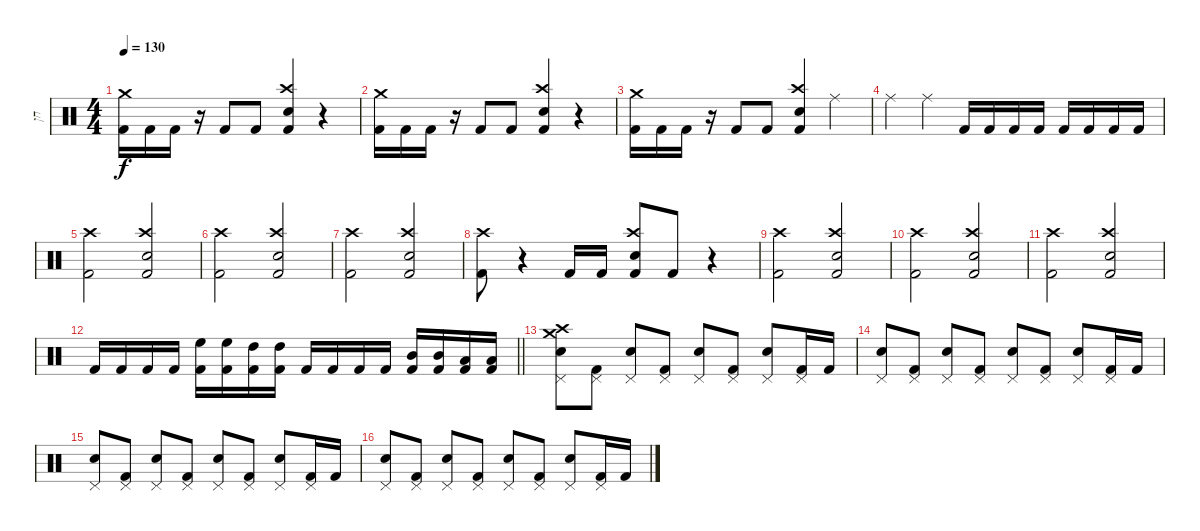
\track ("חן" "חן") {instrument percussion}
\staff {score}
\articulation defaults
\ts (4 4)
\tempo 130
\clef neutral
\ks c
("Crash medium (hit)" "Kick (hit) 2").16{dy f} "Kick (hit) 2".16 "Kick (hit) 2".16 r.16 "Kick (hit) 2".8 "Kick (hit) 2".8 ("Crash high (hit)" "Electric Snare (hit)" "Kick (hit) 2").4 r.4 |
("Crash medium (hit)" "Kick (hit) 2").16 "Kick (hit) 2".16 "Kick (hit) 2".16 r.16 "Kick (hit) 2".8 "Kick (hit) 2".8 ("Crash high (hit)" "Electric Snare (hit)" "Kick (hit) 2").4 r.4 |
("Crash medium (hit)" "Kick (hit) 2").16 "Kick (hit) 2".16 "Kick (hit) 2".16 r.16 "Kick (hit) 2".8 "Kick (hit) 2".8 ("Crash high (hit)" "Electric Snare (hit)" "Kick (hit) 2").4 "Ride (middle)".4 |
"Ride (middle)".4 "Ride (middle)".4 "Kick (hit) 2".16 "Kick (hit) 2".16 "Kick (hit) 2".16 "Kick (hit) 2".16 "Kick (hit) 2".16 "Kick (hit) 2".16 "Kick (hit) 2".16 "Kick (hit) 2".16 |
("Crash high (hit)" "Kick (hit) 2").2 ("Crash high (hit)" "Electric Snare (hit)" "Kick (hit) 2").2 |
("Crash high (hit)" "Kick (hit) 2").2 ("Crash high (hit)" "Electric Snare (hit)" "Kick (hit) 2").2 |
("Crash high (hit)" "Kick (hit) 2").2 ("Crash high (hit)" "Electric Snare (hit)" "Kick (hit) 2").2 |
("Crash high (hit)" "Kick (hit) 2").8 r.4 "Kick (hit) 2".16 "Kick (hit) 2".16 ("Crash high (hit)" "Electric Snare (hit)" "Kick (hit) 2").8 "Kick (hit) 2".8 r.4 |
("Crash high (hit)" "Kick (hit) 2").2 ("Crash high (hit)" "Electric Snare (hit)" "Kick (hit) 2").2 |
("Crash high (hit)" "Kick (hit) 2").2 ("Crash high (hit)" "Electric Snare (hit)" "Kick (hit) 2").2 |
("Crash high (hit)" "Kick (hit) 2").2 ("Crash high (hit)" "Electric Snare (hit)" "Kick (hit) 2").2 |
\barLineRight lightlight "Kick (hit) 2".16 "Kick (hit) 2".16 "Kick (hit) 2".16 "Kick (hit) 2".16
("High Floor Tom (hit)" "Kick (hit) 2").16 ("High Floor Tom (hit)" "Kick (hit) 2").16 ("High Tom (hit)" "Kick (hit) 2").16 ("High Tom (hit)" "Kick (hit) 2").16 "Kick (hit) 2".16 "Kick (hit) 2".16 "Kick (hit) 2".16 "Kick (hit) 2".16 ("Mid Tom (hit)" "Kick (hit) 2").16 ("Mid Tom (hit)" "Kick (hit) 2").16 ("Low Tom (hit)" "Kick (hit) 2").16 ("Low Tom (hit)" "Kick (hit) 2").16 |
("Crash high (hit)" "Electric Snare (hit)" "Pedal Hi-Hat (hit)" "Crash medium (hit)").8 ("Pedal Hi-Hat (hit)" "Kick (hit) 2").8 ("Electric Snare (hit)" "Pedal Hi-Hat (hit)").8 ("Pedal Hi-Hat (hit)" "Kick (hit) 2").8 ("Electric Snare (hit)" "Pedal Hi-Hat (hit)").8 ("Pedal Hi-Hat (hit)" "Kick (hit) 2").8 ("Electric Snare (hit)" "Pedal Hi-Hat (hit)").8 ("Pedal Hi-Hat (hit)" "Kick (hit) 2").16 "Kick (hit) 2".16 |
("Electric Snare (hit)" "Pedal Hi-Hat (hit)").8 ("Pedal Hi-Hat (hit)" "Kick (hit) 2").8 ("Electric Snare (hit)" "Pedal Hi-Hat (hit)").8 ("Pedal Hi-Hat (hit)" "Kick (hit) 2").8 ("Electric Snare (hit)" "Pedal Hi-Hat (hit)").8 ("Pedal Hi-Hat (hit)" "Kick (hit) 2").8 ("Electric Snare (hit)" "Pedal Hi-Hat (hit)").8 ("Pedal Hi-Hat (hit)" "Kick (hit) 2").16 "Kick (hit) 2".16 |
("Electric Snare (hit)" "Pedal Hi-Hat (hit)").8 ("Pedal Hi-Hat (hit)" "Kick (hit) 2").8 ("Electric Snare (hit)" "Pedal Hi-Hat (hit)").8 ("Pedal Hi-Hat (hit)" "Kick (hit) 2").8 ("Electric Snare (hit)" "Pedal Hi-Hat (hit)").8 ("Pedal Hi-Hat (hit)" "Kick (hit) 2").8 ("Electric Snare (hit)" "Pedal Hi-Hat (hit)").8 ("Pedal Hi-Hat (hit)" "Kick (hit) 2").16 "Kick (hit) 2".16 |
("Electric Snare (hit)" "Pedal Hi-Hat (hit)").8 ("Pedal Hi-Hat (hit)" "Kick (hit) 2").8 ("Electric Snare (hit)" "Pedal Hi-Hat (hit)").8 ("Pedal Hi-Hat (hit)" "Kick (hit) 2").8 ("Electric Snare (hit)" "Pedal Hi-Hat (hit)").8 ("Pedal Hi-Hat (hit)" "Kick (hit) 2").8 ("Electric Snare (hit)" "Pedal Hi-Hat (hit)").8 ("Pedal Hi-Hat (hit)" "Kick (hit) 2").16 "Kick (hit) 2".16
